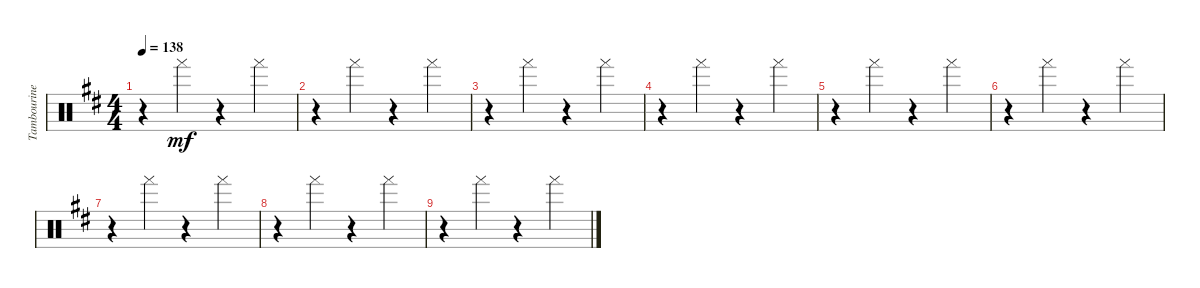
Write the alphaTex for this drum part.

\track ("Tambourine" "Tambourine") {instrument percussion}
\staff {score}
\articulation defaults
\ts (4 4)
\tempo 138
\clef neutral
\ks d
r.4{dy mf} "Tambourine (hand)".4 r.4 "Tambourine (hand)".4 |
r.4 "Tambourine (hand)".4 r.4 "Tambourine (hand)".4 |
r.4 "Tambourine (hand)".4 r.4 "Tambourine (hand)".4 |
r.4 "Tambourine (hand)".4 r.4 "Tambourine (hand)".4 |
r.4 "Tambourine (hand)".4 r.4 "Tambourine (hand)".4 |
r.4 "Tambourine (hand)".4 r.4 "Tambourine (hand)".4 |
r.4 "Tambourine (hand)".4 r.4 "Tambourine (hand)".4 |
r.4 "Tambourine (hand)".4 r.4 "Tambourine (hand)".4 |
r.4 "Tambourine (hand)".4 r.4 "Tambourine (hand)".4
